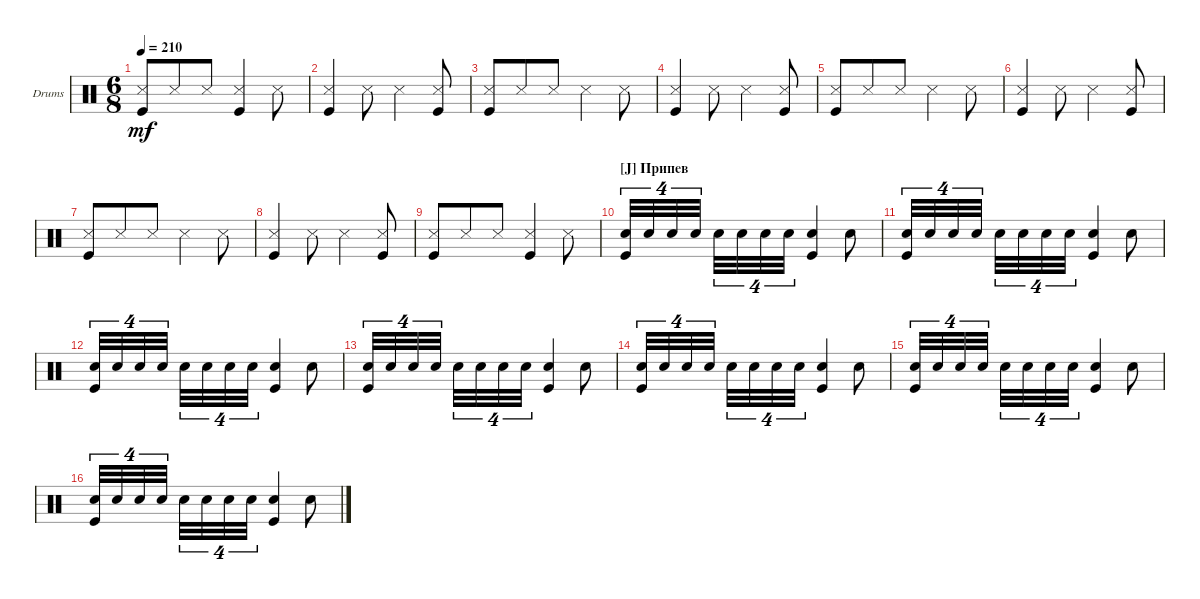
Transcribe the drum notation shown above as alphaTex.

\defaultSystemsLayout 4
\bracketExtendMode nobrackets
\firstSystemTrackNameOrientation horizontal
\otherSystemsTrackNameOrientation horizontal
\track ("Drumkit" "Drums") {instrument percussion}
\staff {score}
\articulation defaults
\ts (6 8)
\tempo 210
\clef neutral
\scale
0.333333
\ks c
("Kick (hit)" "Snare (side stick) 3").8{dy mf} "Snare (side stick) 3".8 "Snare (side stick) 3".8 ("Snare (side stick) 3" "Kick (hit)").4 "Snare (side stick) 3".8 |
\scale
0.333333 ("Kick (hit)" "Snare (side stick) 3").4 "Snare (side stick) 3".8 "Snare (side stick) 3".4 ("Kick (hit)" "Snare (side stick) 3").8 |
\scale
0.333333 ("Kick (hit)" "Snare (side stick) 3").8 "Snare (side stick) 3".8 "Snare (side stick) 3".8 "Snare (side stick) 3".4 "Snare (side stick) 3".8 |
\scale
0.333333 ("Kick (hit)" "Snare (side stick) 3").4 "Snare (side stick) 3".8 "Snare (side stick) 3".4 ("Kick (hit)" "Snare (side stick) 3").8 |
\scale
0.333333 ("Kick (hit)" "Snare (side stick) 3").8 "Snare (side stick) 3".8 "Snare (side stick) 3".8 "Snare (side stick) 3".4 "Snare (side stick) 3".8 |
\scale
0.333333 ("Kick (hit)" "Snare (side stick) 3").4 "Snare (side stick) 3".8 "Snare (side stick) 3".4 ("Kick (hit)" "Snare (side stick) 3").8 |
\scale
0.333333 ("Kick (hit)" "Snare (side stick) 3").8 "Snare (side stick) 3".8 "Snare (side stick) 3".8 "Snare (side stick) 3".4 "Snare (side stick) 3".8 |
\scale
0.333333 ("Kick (hit)" "Snare (side stick) 3").4 "Snare (side stick) 3".8 "Snare (side stick) 3".4 ("Kick (hit)" "Snare (side stick) 3").8 |
\scale
0.333333 ("Kick (hit)" "Snare (side stick) 3").8 "Snare (side stick) 3".8 "Snare (side stick) 3".8 ("Snare (side stick) 3" "Kick (hit)").4 "Snare (side stick) 3".8 |
\section ("J" "Припев")
\scale
0.333333 ("Kick (hit)" "Snare (hit) 2").32{tu (4 6)} "Snare (hit) 2".32{tu (4 6)} "Snare (hit) 2".32{tu (4 6)} "Snare (hit) 2".32{tu (4 6)} "Snare (hit) 2".32{tu (4 6)} "Snare (hit) 2".32{tu (4 6)} "Snare (hit) 2".32{tu (4 6)} "Snare (hit) 2".32{tu (4 6)} ("Kick (hit)" "Snare (hit) 2").4 "Snare (hit) 2".8 |
\scale
0.333333 ("Kick (hit)" "Snare (hit) 2").32{tu (4 6)} "Snare (hit) 2".32{tu (4 6)} "Snare (hit) 2".32{tu (4 6)} "Snare (hit) 2".32{tu (4 6)} "Snare (hit) 2".32{tu (4 6)} "Snare (hit) 2".32{tu (4 6)} "Snare (hit) 2".32{tu (4 6)} "Snare (hit) 2".32{tu (4 6)} ("Kick (hit)" "Snare (hit) 2").4 "Snare (hit) 2".8 |
\scale
0.333333 ("Kick (hit)" "Snare (hit) 2").32{tu (4 6)} "Snare (hit) 2".32{tu (4 6)} "Snare (hit) 2".32{tu (4 6)} "Snare (hit) 2".32{tu (4 6)} "Snare (hit) 2".32{tu (4 6)} "Snare (hit) 2".32{tu (4 6)} "Snare (hit) 2".32{tu (4 6)} "Snare (hit) 2".32{tu (4 6)} ("Kick (hit)" "Snare (hit) 2").4 "Snare (hit) 2".8 |
\scale
0.333333 ("Kick (hit)" "Snare (hit) 2").32{tu (4 6)} "Snare (hit) 2".32{tu (4 6)} "Snare (hit) 2".32{tu (4 6)} "Snare (hit) 2".32{tu (4 6)} "Snare (hit) 2".32{tu (4 6)} "Snare (hit) 2".32{tu (4 6)} "Snare (hit) 2".32{tu (4 6)} "Snare (hit) 2".32{tu (4 6)} ("Kick (hit)" "Snare (hit) 2").4 "Snare (hit) 2".8 |
\scale
0.333333 ("Kick (hit)" "Snare (hit) 2").32{tu (4 6)} "Snare (hit) 2".32{tu (4 6)} "Snare (hit) 2".32{tu (4 6)} "Snare (hit) 2".32{tu (4 6)} "Snare (hit) 2".32{tu (4 6)} "Snare (hit) 2".32{tu (4 6)} "Snare (hit) 2".32{tu (4 6)} "Snare (hit) 2".32{tu (4 6)} ("Kick (hit)" "Snare (hit) 2").4 "Snare (hit) 2".8 |
\scale
0.333333 ("Kick (hit)" "Snare (hit) 2").32{tu (4 6)} "Snare (hit) 2".32{tu (4 6)} "Snare (hit) 2".32{tu (4 6)} "Snare (hit) 2".32{tu (4 6)} "Snare (hit) 2".32{tu (4 6)} "Snare (hit) 2".32{tu (4 6)} "Snare (hit) 2".32{tu (4 6)} "Snare (hit) 2".32{tu (4 6)} ("Kick (hit)" "Snare (hit) 2").4 "Snare (hit) 2".8 |
\scale
0.333333 ("Kick (hit)" "Snare (hit) 2").32{tu (4 6)} "Snare (hit) 2".32{tu (4 6)} "Snare (hit) 2".32{tu (4 6)} "Snare (hit) 2".32{tu (4 6)} "Snare (hit) 2".32{tu (4 6)} "Snare (hit) 2".32{tu (4 6)} "Snare (hit) 2".32{tu (4 6)} "Snare (hit) 2".32{tu (4 6)} ("Kick (hit)" "Snare (hit) 2").4 "Snare (hit) 2".8
